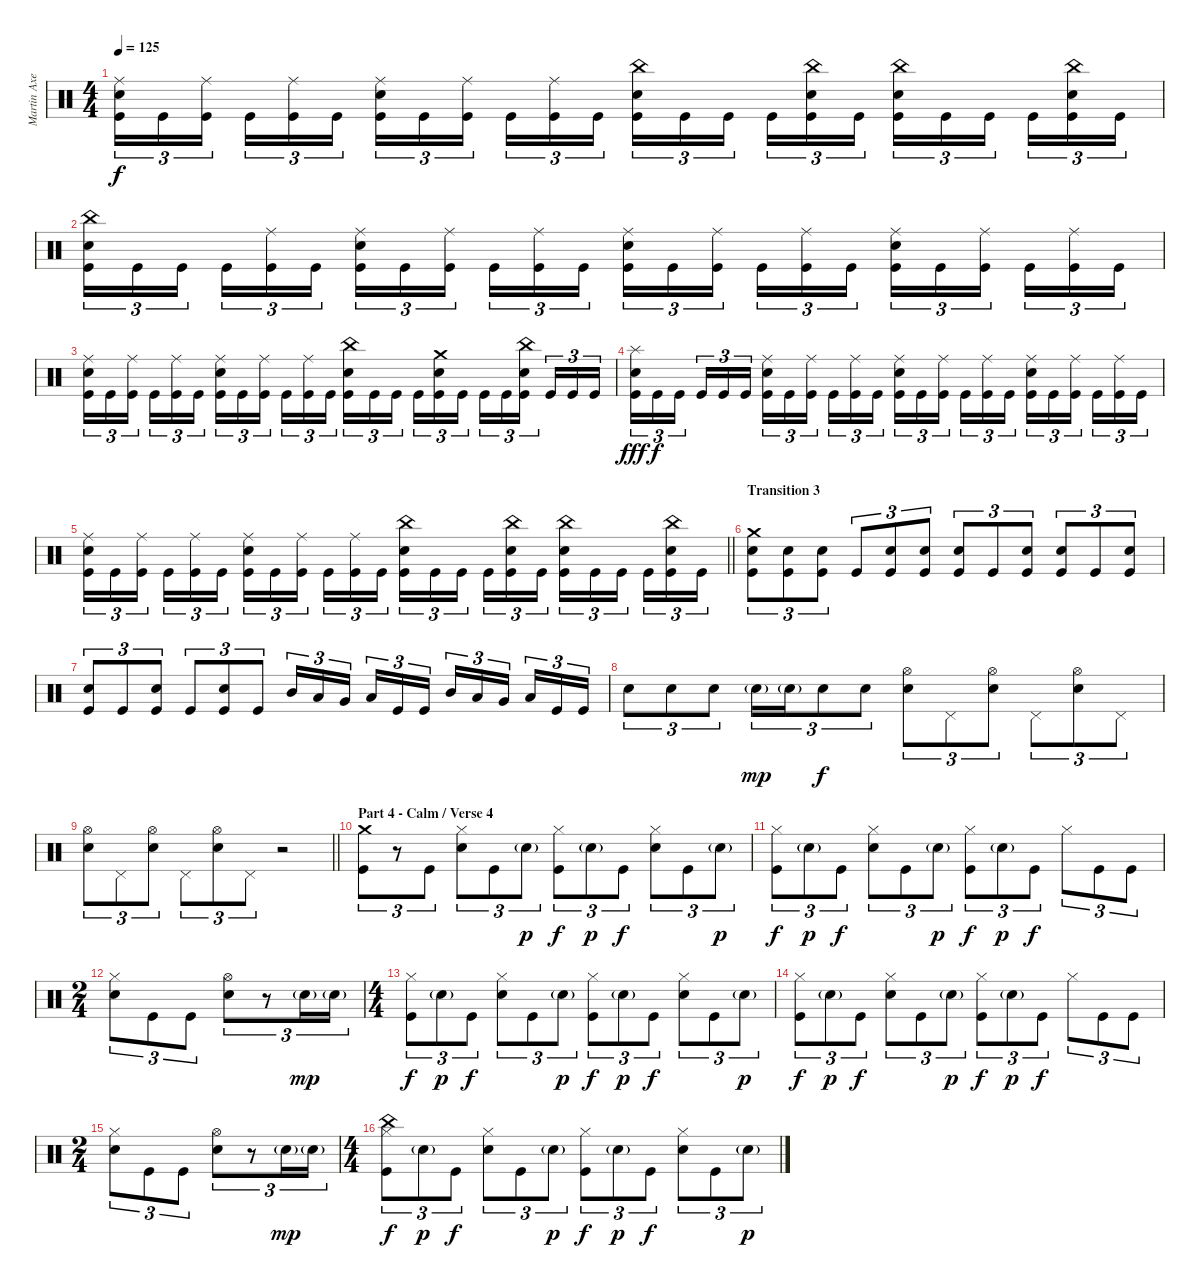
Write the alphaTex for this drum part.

\track ("Martin Axenrot" "Martin Axe") {instrument percussion}
\staff {score}
\articulation defaults
\ts (4 4)
\tempo 125
\clef neutral
\ks c
("Ride (middle)" "Snare (hit) 2" "Kick (hit)").16{tu (3 2) dy f} "Kick (hit)".16{tu (3 2)} ("Ride (middle)" "Kick (hit)").16{tu (3 2) beam splitsecondary} "Kick (hit)".16{tu (3 2)} ("Ride (middle)" "Kick (hit)").16{tu (3 2)} "Kick (hit)".16{tu (3 2)} ("Ride (middle)" "Snare (hit) 2" "Kick (hit)").16{tu (3 2)} "Kick (hit)".16{tu (3 2)} ("Ride (middle)" "Kick (hit)").16{tu (3 2) beam splitsecondary} "Kick (hit)".16{tu (3 2)} ("Ride (middle)" "Kick (hit)").16{tu (3 2)} "Kick (hit)".16{tu (3 2)} ("China (hit)" "Snare (hit) 2" "Kick (hit)").16{tu (3 2)} "Kick (hit)".16{tu (3 2)} "Kick (hit)".16{tu (3 2) beam splitsecondary} "Kick (hit)".16{tu (3 2)} ("China (hit)" "Snare (hit) 2" "Kick (hit)").16{tu (3 2)} "Kick (hit)".16{tu (3 2)} ("China (hit)" "Snare (hit) 2" "Kick (hit)").16{tu (3 2)} "Kick (hit)".16{tu (3 2)} "Kick (hit)".16{tu (3 2) beam splitsecondary} "Kick (hit)".16{tu (3 2)} ("China (hit)" "Snare (hit) 2" "Kick (hit)").16{tu (3 2)} "Kick (hit)".16{tu (3 2)} |
("China (hit)" "Snare (hit) 2" "Kick (hit)").16{tu (3 2)} "Kick (hit)".16{tu (3 2)} "Kick (hit)".16{tu (3 2) beam splitsecondary} "Kick (hit)".16{tu (3 2)} ("Ride (middle)" "Kick (hit)").16{tu (3 2)} "Kick (hit)".16{tu (3 2)} ("Ride (middle)" "Snare (hit) 2" "Kick (hit)").16{tu (3 2)} "Kick (hit)".16{tu (3 2)} ("Ride (middle)" "Kick (hit)").16{tu (3 2) beam splitsecondary} "Kick (hit)".16{tu (3 2)} ("Ride (middle)" "Kick (hit)").16{tu (3 2)} "Kick (hit)".16{tu (3 2)} ("Ride (middle)" "Snare (hit) 2" "Kick (hit)").16{tu (3 2)} "Kick (hit)".16{tu (3 2)} ("Ride (middle)" "Kick (hit)").16{tu (3 2) beam splitsecondary} "Kick (hit)".16{tu (3 2)} ("Ride (middle)" "Kick (hit)").16{tu (3 2)} "Kick (hit)".16{tu (3 2)} ("Ride (middle)" "Snare (hit) 2" "Kick (hit)").16{tu (3 2)} "Kick (hit)".16{tu (3 2)} ("Ride (middle)" "Kick (hit)").16{tu (3 2) beam splitsecondary} "Kick (hit)".16{tu (3 2)} ("Ride (middle)" "Kick (hit)").16{tu (3 2)} "Kick (hit)".16{tu (3 2)} |
("Ride (middle)" "Snare (hit) 2" "Kick (hit)").16{tu (3 2)} "Kick (hit)".16{tu (3 2)} ("Ride (middle)" "Kick (hit)").16{tu (3 2) beam splitsecondary} "Kick (hit)".16{tu (3 2)} ("Ride (middle)" "Kick (hit)").16{tu (3 2)} "Kick (hit)".16{tu (3 2)} ("Ride (middle)" "Snare (hit) 2" "Kick (hit)").16{tu (3 2)} "Kick (hit)".16{tu (3 2)} ("Ride (middle)" "Kick (hit)").16{tu (3 2) beam splitsecondary} "Kick (hit)".16{tu (3 2)} ("Ride (middle)" "Kick (hit)").16{tu (3 2)} "Kick (hit)".16{tu (3 2)} ("China (hit)" "Snare (hit) 2" "Kick (hit)").16{tu (3 2)} "Kick (hit)".16{tu (3 2)} "Kick (hit)".16{tu (3 2) beam splitsecondary} "Kick (hit)".16{tu (3 2)} ("Crash medium (hit)" "Snare (hit) 2" "Kick (hit)").16{tu (3 2)} "Kick (hit)".16{tu (3 2)} "Kick (hit)".16{tu (3 2)} "Kick (hit)".16{tu (3 2)} ("China (hit)" "Snare (hit) 2" "Kick (hit)").16{tu (3 2) beam splitsecondary} "Kick (hit)".16{tu (3 2)} "Kick (hit)".16{tu (3 2)} "Kick (hit)".16{tu (3 2)} |
("Splash (hit)" "Snare (hit) 2" "Kick (hit)").16{tu (3 2) dy fff} "Kick (hit)".16{tu (3 2) dy f} "Kick (hit)".16{tu (3 2) beam splitsecondary} "Kick (hit)".16{tu (3 2)} "Kick (hit)".16{tu (3 2)} "Kick (hit)".16{tu (3 2)} ("Ride (middle)" "Snare (hit) 2" "Kick (hit)").16{tu (3 2)} "Kick (hit)".16{tu (3 2)} ("Ride (middle)" "Kick (hit)").16{tu (3 2) beam splitsecondary} "Kick (hit)".16{tu (3 2)} ("Ride (middle)" "Kick (hit)").16{tu (3 2)} "Kick (hit)".16{tu (3 2)} ("Ride (middle)" "Snare (hit) 2" "Kick (hit)").16{tu (3 2)} "Kick (hit)".16{tu (3 2)} ("Ride (middle)" "Kick (hit)").16{tu (3 2) beam splitsecondary} "Kick (hit)".16{tu (3 2)} ("Ride (middle)" "Kick (hit)").16{tu (3 2)} "Kick (hit)".16{tu (3 2)} ("Ride (middle)" "Snare (hit) 2" "Kick (hit)").16{tu (3 2)} "Kick (hit)".16{tu (3 2)} ("Ride (middle)" "Kick (hit)").16{tu (3 2) beam splitsecondary} "Kick (hit)".16{tu (3 2)} ("Ride (middle)" "Kick (hit)").16{tu (3 2)} "Kick (hit)".16{tu (3 2)} |
\barLineRight lightlight
("Ride (middle)" "Snare (hit) 2" "Kick (hit)").16{tu (3 2)} "Kick (hit)".16{tu (3 2)} ("Ride (middle)" "Kick (hit)").16{tu (3 2) beam splitsecondary} "Kick (hit)".16{tu (3 2)} ("Ride (middle)" "Kick (hit)").16{tu (3 2)} "Kick (hit)".16{tu (3 2)} ("Ride (middle)" "Snare (hit) 2" "Kick (hit)").16{tu (3 2)} "Kick (hit)".16{tu (3 2)} ("Ride (middle)" "Kick (hit)").16{tu (3 2) beam splitsecondary} "Kick (hit)".16{tu (3 2)} ("Ride (middle)" "Kick (hit)").16{tu (3 2)} "Kick (hit)".16{tu (3 2)} ("China (hit)" "Snare (hit) 2" "Kick (hit)").16{tu (3 2)} "Kick (hit)".16{tu (3 2)} "Kick (hit)".16{tu (3 2) beam splitsecondary} "Kick (hit)".16{tu (3 2)} ("China (hit)" "Snare (hit) 2" "Kick (hit)").16{tu (3 2)} "Kick (hit)".16{tu (3 2)} ("China (hit)" "Snare (hit) 2" "Kick (hit)").16{tu (3 2)} "Kick (hit)".16{tu (3 2)} "Kick (hit)".16{tu (3 2) beam splitsecondary} "Kick (hit)".16{tu (3 2)} ("China (hit)" "Snare (hit) 2" "Kick (hit)").16{tu (3 2)} "Kick (hit)".16{tu (3 2)} |
\section ("" "Transition 3")
("Crash medium (hit)" "Snare (hit) 2" "Kick (hit)").8{tu (3 2)} ("Snare (hit) 2" "Kick (hit)").8{tu (3 2)} ("Snare (hit) 2" "Kick (hit)").8{tu (3 2)} "Kick (hit)".8{tu (3 2)} ("Snare (hit) 2" "Kick (hit)").8{tu (3 2)} ("Snare (hit) 2" "Kick (hit)").8{tu (3 2)} ("Snare (hit) 2" "Kick (hit)").8{tu (3 2)} "Kick (hit)".8{tu (3 2)} ("Snare (hit) 2" "Kick (hit)").8{tu (3 2)} ("Snare (hit) 2" "Kick (hit)").8{tu (3 2)} "Kick (hit)".8{tu (3 2)} ("Snare (hit) 2" "Kick (hit)").8{tu (3 2)} |
("Snare (hit) 2" "Kick (hit)").8{tu (3 2)} "Kick (hit)".8{tu (3 2)} ("Snare (hit) 2" "Kick (hit)").8{tu (3 2)} "Kick (hit)".8{tu (3 2)} ("Snare (hit) 2" "Kick (hit)").8{tu (3 2)} "Kick (hit)".8{tu (3 2)} "Mid Tom (hit)".16{tu (3 2)} "Low Tom (hit)".16{tu (3 2)} "Very Low Tom (hit)".16{tu (3 2) beam splitsecondary} "Low Floor Tom (hit)".16{tu (3 2)} "Kick (hit)".16{tu (3 2)} "Kick (hit)".16{tu (3 2)} "Mid Tom (hit)".16{tu (3 2)} "Low Tom (hit)".16{tu (3 2)} "Very Low Tom (hit)".16{tu (3 2) beam splitsecondary} "Low Floor Tom (hit)".16{tu (3 2)} "Kick (hit)".16{tu (3 2)} "Kick (hit)".16{tu (3 2)} |
"Snare (hit) 2".8{tu (3 2)} "Snare (hit) 2".8{tu (3 2)} "Snare (hit) 2".8{tu (3 2)} "Snare (hit) 2"{g}.16{tu (3 2) dy mp} "Snare (hit) 2"{g}.16{tu (3 2)} "Snare (hit) 2".8{tu (3 2) dy f} "Snare (hit) 2".8{tu (3 2)} ("Hi-Hat (open)" "Snare (hit) 2").8{tu (3 2)} "Pedal Hi-Hat (hit)".8{tu (3 2)} ("Hi-Hat (open)" "Snare (hit) 2").8{tu (3 2)} "Pedal Hi-Hat (hit)".8{tu (3 2)} ("Hi-Hat (open)" "Snare (hit) 2").8{tu (3 2)} "Pedal Hi-Hat (hit)".8{tu (3 2)} |
\barLineRight lightlight
("Hi-Hat (open)" "Snare (hit) 2").8{tu (3 2)} "Pedal Hi-Hat (hit)".8{tu (3 2)} ("Hi-Hat (open)" "Snare (hit) 2").8{tu (3 2)} "Pedal Hi-Hat (hit)".8{tu (3 2)} ("Hi-Hat (open)" "Snare (hit) 2").8{tu (3 2)} "Pedal Hi-Hat (hit)".8{tu (3 2)} r.2 |
\section ("" "Part 4 - Calm / Verse 4")
("Crash medium (hit)" "Kick (hit)").8{tu (3 2)} r.8{tu (3 2)} "Kick (hit)".8{tu (3 2)} ("Hi-Hat (closed)" "Snare (hit) 2").8{tu (3 2)} "Kick (hit)".8{tu (3 2)} "Snare (hit) 2"{g}.8{tu (3 2) dy p} ("Hi-Hat (closed)" "Kick (hit)").8{tu (3 2) dy f} "Snare (hit) 2"{g}.8{tu (3 2) dy p} "Kick (hit)".8{tu (3 2) dy f} ("Hi-Hat (closed)" "Snare (hit) 2").8{tu (3 2)} "Kick (hit)".8{tu (3 2)} "Snare (hit) 2"{g}.8{tu (3 2) dy p} |
("Hi-Hat (closed)" "Kick (hit)").8{tu (3 2) dy f} "Snare (hit) 2"{g}.8{tu (3 2) dy p} "Kick (hit)".8{tu (3 2) dy f} ("Hi-Hat (closed)" "Snare (hit) 2").8{tu (3 2)} "Kick (hit)".8{tu (3 2)} "Snare (hit) 2"{g}.8{tu (3 2) dy p} ("Hi-Hat (closed)" "Kick (hit)").8{tu (3 2) dy f} "Snare (hit) 2"{g}.8{tu (3 2) dy p} "Kick (hit)".8{tu (3 2) dy f} "Hi-Hat (closed)".8{tu (3 2)} "Kick (hit)".8{tu (3 2)} "Kick (hit)".8{tu (3 2)} |
\ts (2 4)
("Hi-Hat (closed)" "Snare (hit) 2").8{tu (3 2)} "Kick (hit)".8{tu (3 2)} "Kick (hit)".8{tu (3 2)} ("Hi-Hat (open)" "Snare (hit) 2").8{tu (3 2)} r.8{tu (3 2)} "Snare (hit) 2"{g}.16{tu (3 2) dy mp} "Snare (hit) 2"{g}.16{tu (3 2)} |
\ts (4 4)
("Hi-Hat (closed)" "Kick (hit)").8{tu (3 2) dy f} "Snare (hit) 2"{g}.8{tu (3 2) dy p} "Kick (hit)".8{tu (3 2) dy f} ("Hi-Hat (closed)" "Snare (hit) 2").8{tu (3 2)} "Kick (hit)".8{tu (3 2)} "Snare (hit) 2"{g}.8{tu (3 2) dy p} ("Hi-Hat (closed)" "Kick (hit)").8{tu (3 2) dy f} "Snare (hit) 2"{g}.8{tu (3 2) dy p} "Kick (hit)".8{tu (3 2) dy f} ("Hi-Hat (closed)" "Snare (hit) 2").8{tu (3 2)} "Kick (hit)".8{tu (3 2)} "Snare (hit) 2"{g}.8{tu (3 2) dy p} |
("Hi-Hat (closed)" "Kick (hit)").8{tu (3 2) dy f} "Snare (hit) 2"{g}.8{tu (3 2) dy p} "Kick (hit)".8{tu (3 2) dy f} ("Hi-Hat (closed)" "Snare (hit) 2").8{tu (3 2)} "Kick (hit)".8{tu (3 2)} "Snare (hit) 2"{g}.8{tu (3 2) dy p} ("Hi-Hat (closed)" "Kick (hit)").8{tu (3 2) dy f} "Snare (hit) 2"{g}.8{tu (3 2) dy p} "Kick (hit)".8{tu (3 2) dy f} "Hi-Hat (closed)".8{tu (3 2)} "Kick (hit)".8{tu (3 2)} "Kick (hit)".8{tu (3 2)} |
\ts (2 4)
("Hi-Hat (closed)" "Snare (hit) 2").8{tu (3 2)} "Kick (hit)".8{tu (3 2)} "Kick (hit)".8{tu (3 2)} ("Hi-Hat (open)" "Snare (hit) 2").8{tu (3 2)} r.8{tu (3 2)} "Snare (hit) 2"{g}.16{tu (3 2) dy mp} "Snare (hit) 2"{g}.16{tu (3 2)} |
\ts (4 4)
("Hi-Hat (closed)" "China (hit)" "Kick (hit)").8{tu (3 2) dy f} "Snare (hit) 2"{g}.8{tu (3 2) dy p} "Kick (hit)".8{tu (3 2) dy f} ("Hi-Hat (closed)" "Snare (hit) 2").8{tu (3 2)} "Kick (hit)".8{tu (3 2)} "Snare (hit) 2"{g}.8{tu (3 2) dy p} ("Hi-Hat (closed)" "Kick (hit)").8{tu (3 2) dy f} "Snare (hit) 2"{g}.8{tu (3 2) dy p} "Kick (hit)".8{tu (3 2) dy f} ("Hi-Hat (closed)" "Snare (hit) 2").8{tu (3 2)} "Kick (hit)".8{tu (3 2)} "Snare (hit) 2"{g}.8{tu (3 2) dy p}
